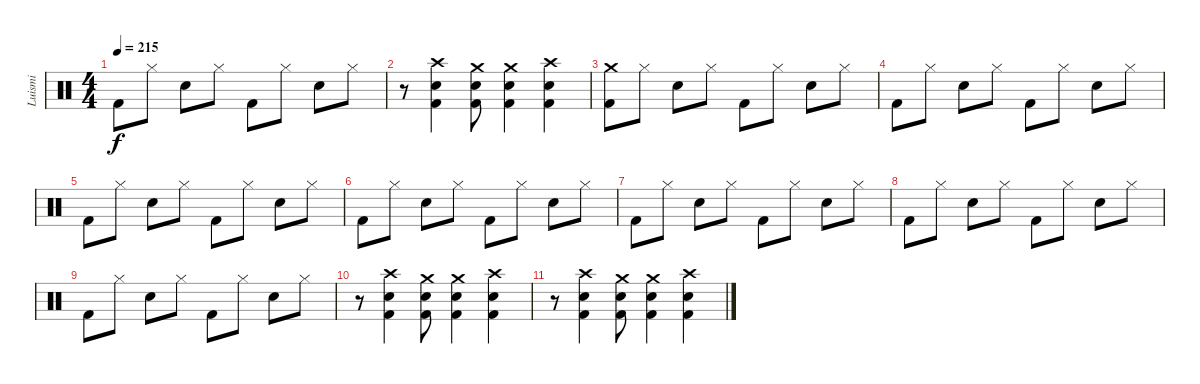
\track ("Luismi" "Luismi") {instrument percussion}
\staff {score}
\articulation defaults
\ts (4 4)
\tempo 215
\clef neutral
\ks c "Kick (hit) 2".8{dy f} "Hi-Hat (closed)".8 "Snare (hit) 2".8 "Hi-Hat (closed)".8 "Kick (hit) 2".8 "Hi-Hat (closed)".8 "Snare (hit) 2".8 "Hi-Hat (closed)".8
|
r.8 ("Crash high (hit)" "Snare (hit) 2" "Kick (hit) 2").4 ("Crash medium (hit)" "Snare (hit) 2" "Kick (hit) 2").8 ("Crash medium (hit)" "Snare (hit) 2" "Kick (hit) 2").4 ("Crash high (hit)" "Snare (hit) 2" "Kick (hit) 2").4 |
("Crash medium (hit)" "Kick (hit) 2").8 "Hi-Hat (closed)".8 "Snare (hit) 2".8 "Hi-Hat (closed)".8 "Kick (hit) 2".8 "Hi-Hat (closed)".8 "Snare (hit) 2".8 "Hi-Hat (closed)".8 |
"Kick (hit) 2".8 "Hi-Hat (closed)".8 "Snare (hit) 2".8 "Hi-Hat (closed)".8 "Kick (hit) 2".8 "Hi-Hat (closed)".8 "Snare (hit) 2".8 "Hi-Hat (closed)".8 |
"Kick (hit) 2".8 "Hi-Hat (closed)".8 "Snare (hit) 2".8 "Hi-Hat (closed)".8 "Kick (hit) 2".8 "Hi-Hat (closed)".8 "Snare (hit) 2".8 "Hi-Hat (closed)".8 |
"Kick (hit) 2".8 "Hi-Hat (closed)".8 "Snare (hit) 2".8 "Hi-Hat (closed)".8 "Kick (hit) 2".8 "Hi-Hat (closed)".8 "Snare (hit) 2".8 "Hi-Hat (closed)".8 |
"Kick (hit) 2".8 "Hi-Hat (closed)".8 "Snare (hit) 2".8 "Hi-Hat (closed)".8 "Kick (hit) 2".8 "Hi-Hat (closed)".8 "Snare (hit) 2".8 "Hi-Hat (closed)".8 |
"Kick (hit) 2".8 "Hi-Hat (closed)".8 "Snare (hit) 2".8 "Hi-Hat (closed)".8 "Kick (hit) 2".8 "Hi-Hat (closed)".8 "Snare (hit) 2".8 "Hi-Hat (closed)".8 |
"Kick (hit) 2".8 "Hi-Hat (closed)".8 "Snare (hit) 2".8 "Hi-Hat (closed)".8 "Kick (hit) 2".8 "Hi-Hat (closed)".8 "Snare (hit) 2".8 "Hi-Hat (closed)".8 |
r.8 ("Crash high (hit)" "Snare (hit) 2" "Kick (hit) 2").4 ("Crash medium (hit)" "Snare (hit) 2" "Kick (hit) 2").8 ("Crash medium (hit)" "Snare (hit) 2" "Kick (hit) 2").4 ("Crash high (hit)" "Snare (hit) 2" "Kick (hit) 2").4 |
r.8 ("Crash high (hit)" "Snare (hit) 2" "Kick (hit) 2").4 ("Crash medium (hit)" "Snare (hit) 2" "Kick (hit) 2").8 ("Crash medium (hit)" "Snare (hit) 2" "Kick (hit) 2").4 ("Crash high (hit)" "Snare (hit) 2" "Kick (hit) 2").4
